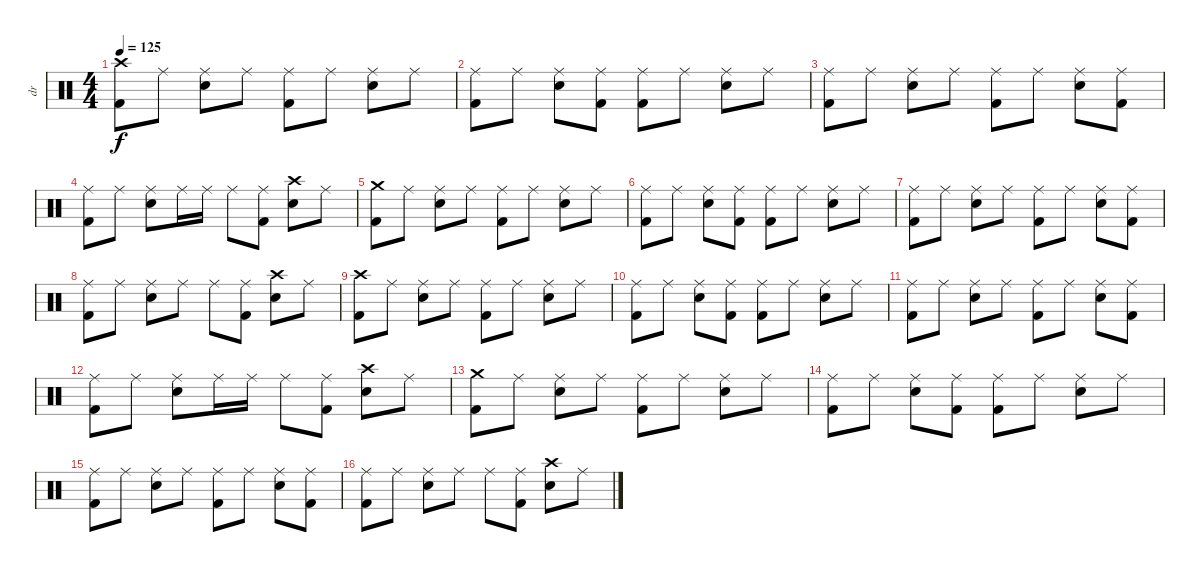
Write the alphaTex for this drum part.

\track ("dr" "dr") {instrument percussion}
\staff {score}
\articulation defaults
\ts (4 4)
\tempo 125
\clef neutral
\ks c
("Crash high (hit)" "Kick (hit) 2").8{dy f} "Ride (middle)".8 ("Ride (middle)" "Snare (hit) 2").8 "Ride (middle)".8 ("Ride (middle)" "Kick (hit) 2").8 "Ride (middle)".8 ("Ride (middle)" "Snare (hit) 2").8 "Ride (middle)".8 |
("Ride (middle)" "Kick (hit) 2").8 "Ride (middle)".8 ("Ride (middle)" "Snare (hit) 2").8 ("Ride (middle)" "Kick (hit) 2").8 ("Ride (middle)" "Kick (hit) 2").8 "Ride (middle)".8 ("Ride (middle)" "Snare (hit) 2").8 "Ride (middle)".8 |
("Ride (middle)" "Kick (hit) 2").8 "Ride (middle)".8 ("Ride (middle)" "Snare (hit) 2").8 "Ride (middle)".8 ("Ride (middle)" "Kick (hit) 2").8 "Ride (middle)".8 ("Ride (middle)" "Snare (hit) 2").8 ("Ride (middle)" "Kick (hit) 2").8 |
("Ride (middle)" "Kick (hit) 2").8 "Ride (middle)".8 ("Ride (middle)" "Snare (hit) 2").8 "Ride (middle)".16 "Ride (middle)".16 "Ride (middle)".8 ("Ride (middle)" "Kick (hit) 2").8 ("Crash high (hit)" "Snare (hit) 2").8 "Ride (middle)".8 |
("Crash medium (hit)" "Kick (hit) 2").8 "Ride (middle)".8 ("Ride (middle)" "Snare (hit) 2").8 "Ride (middle)".8 ("Ride (middle)" "Kick (hit) 2").8 "Ride (middle)".8 ("Ride (middle)" "Snare (hit) 2").8 "Ride (middle)".8 |
("Ride (middle)" "Kick (hit) 2").8 "Ride (middle)".8 ("Ride (middle)" "Snare (hit) 2").8 ("Ride (middle)" "Kick (hit) 2").8 ("Ride (middle)" "Kick (hit) 2").8 "Ride (middle)".8 ("Ride (middle)" "Snare (hit) 2").8 "Ride (middle)".8 |
("Ride (middle)" "Kick (hit) 2").8 "Ride (middle)".8 ("Ride (middle)" "Snare (hit) 2").8 "Ride (middle)".8 ("Ride (middle)" "Kick (hit) 2").8 "Ride (middle)".8 ("Ride (middle)" "Snare (hit) 2").8 ("Ride (middle)" "Kick (hit) 2").8 |
("Ride (middle)" "Kick (hit) 2").8 "Ride (middle)".8 ("Ride (middle)" "Snare (hit) 2").8 "Ride (middle)".8 "Ride (middle)".8 ("Ride (middle)" "Kick (hit) 2").8 ("Crash high (hit)" "Snare (hit) 2").8 "Ride (middle)".8 |
("Crash high (hit)" "Kick (hit) 2").8 "Ride (middle)".8 ("Ride (middle)" "Snare (hit) 2").8 "Ride (middle)".8 ("Ride (middle)" "Kick (hit) 2").8 "Ride (middle)".8 ("Ride (middle)" "Snare (hit) 2").8 "Ride (middle)".8 |
("Ride (middle)" "Kick (hit) 2").8 "Ride (middle)".8 ("Ride (middle)" "Snare (hit) 2").8 ("Ride (middle)" "Kick (hit) 2").8 ("Ride (middle)" "Kick (hit) 2").8 "Ride (middle)".8 ("Ride (middle)" "Snare (hit) 2").8 "Ride (middle)".8 |
("Ride (middle)" "Kick (hit) 2").8 "Ride (middle)".8 ("Ride (middle)" "Snare (hit) 2").8 "Ride (middle)".8 ("Ride (middle)" "Kick (hit) 2").8 "Ride (middle)".8 ("Ride (middle)" "Snare (hit) 2").8 ("Ride (middle)" "Kick (hit) 2").8 |
("Ride (middle)" "Kick (hit) 2").8 "Ride (middle)".8 ("Ride (middle)" "Snare (hit) 2").8 "Ride (middle)".16 "Ride (middle)".16 "Ride (middle)".8 ("Ride (middle)" "Kick (hit) 2").8 ("Crash high (hit)" "Snare (hit) 2").8 "Ride (middle)".8 |
("Crash medium (hit)" "Kick (hit) 2").8 "Ride (middle)".8 ("Ride (middle)" "Snare (hit) 2").8 "Ride (middle)".8 ("Ride (middle)" "Kick (hit) 2").8 "Ride (middle)".8 ("Ride (middle)" "Snare (hit) 2").8 "Ride (middle)".8 |
("Ride (middle)" "Kick (hit) 2").8 "Ride (middle)".8 ("Ride (middle)" "Snare (hit) 2").8 ("Ride (middle)" "Kick (hit) 2").8 ("Ride (middle)" "Kick (hit) 2").8 "Ride (middle)".8 ("Ride (middle)" "Snare (hit) 2").8 "Ride (middle)".8 |
("Ride (middle)" "Kick (hit) 2").8 "Ride (middle)".8 ("Ride (middle)" "Snare (hit) 2").8 "Ride (middle)".8 ("Ride (middle)" "Kick (hit) 2").8 "Ride (middle)".8 ("Ride (middle)" "Snare (hit) 2").8 ("Ride (middle)" "Kick (hit) 2").8 |
("Ride (middle)" "Kick (hit) 2").8 "Ride (middle)".8 ("Ride (middle)" "Snare (hit) 2").8 "Ride (middle)".8 "Ride (middle)".8 ("Ride (middle)" "Kick (hit) 2").8 ("Crash high (hit)" "Snare (hit) 2").8 "Ride (middle)".8
